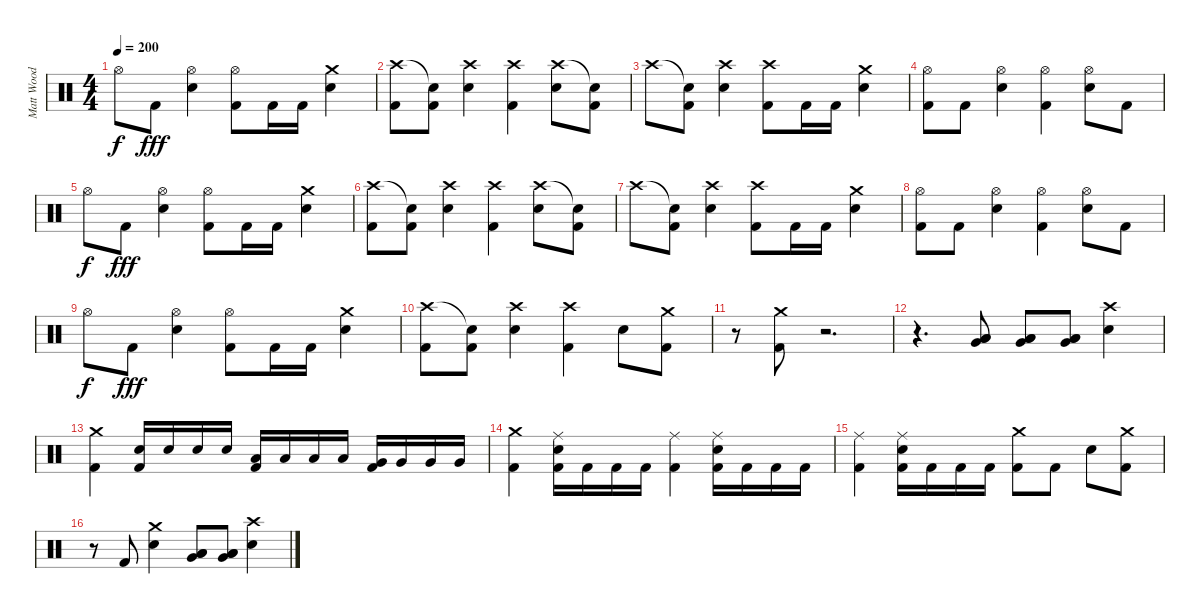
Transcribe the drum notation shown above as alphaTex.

\track ("Matt Wood" "Matt Wood") {instrument percussion}
\staff {score}
\articulation defaults
\ts (4 4)
\tempo 200
\clef neutral
\ks c "Hi-Hat (open)".8{dy f} "Kick (hit) 2".8{dy fff}
("Hi-Hat (open)" "Electric Snare (hit)").4 ("Hi-Hat (open)" "Kick (hit) 2").8 "Kick (hit) 2".16 "Kick (hit) 2".16 ("Crash medium (hit)" "Electric Snare (hit)").4 |
("Crash high (hit)" "Kick (hit) 2").8 ("Snare (hit)"{t} "Kick (hit) 2").8 ("Crash high (hit)" "Electric Snare (hit)").4 ("Crash high (hit)" "Kick (hit) 2").4 ("Crash high (hit)" "Electric Snare (hit)").8 ("Snare (hit)"{t} "Kick (hit) 2").8 |
"Crash high (hit)".8 ("Snare (hit)"{t} "Kick (hit) 2").8 ("Crash high (hit)" "Electric Snare (hit)").4 ("Crash high (hit)" "Kick (hit) 2").8 "Kick (hit) 2".16 "Kick (hit) 2".16 ("Crash medium (hit)" "Electric Snare (hit)").4 |
("Hi-Hat (open)" "Kick (hit) 2").8 "Kick (hit) 2".8 ("Hi-Hat (open)" "Electric Snare (hit)").4 ("Hi-Hat (open)" "Kick (hit) 2").4 ("Hi-Hat (open)" "Electric Snare (hit)").8 "Kick (hit) 2".8 |
"Hi-Hat (open)".8{dy f} "Kick (hit) 2".8{dy fff} ("Hi-Hat (open)" "Electric Snare (hit)").4 ("Hi-Hat (open)" "Kick (hit) 2").8 "Kick (hit) 2".16 "Kick (hit) 2".16 ("Crash medium (hit)" "Electric Snare (hit)").4 |
("Crash high (hit)" "Kick (hit) 2").8 ("Snare (hit)"{t} "Kick (hit) 2").8 ("Crash high (hit)" "Electric Snare (hit)").4 ("Crash high (hit)" "Kick (hit) 2").4 ("Crash high (hit)" "Electric Snare (hit)").8 ("Snare (hit)"{t} "Kick (hit) 2").8 |
"Crash high (hit)".8 ("Snare (hit)"{t} "Kick (hit) 2").8 ("Crash high (hit)" "Electric Snare (hit)").4 ("Crash high (hit)" "Kick (hit) 2").8 "Kick (hit) 2".16 "Kick (hit) 2".16 ("Crash medium (hit)" "Electric Snare (hit)").4 |
("Hi-Hat (open)" "Kick (hit) 2").8 "Kick (hit) 2".8 ("Hi-Hat (open)" "Electric Snare (hit)").4 ("Hi-Hat (open)" "Kick (hit) 2").4 ("Hi-Hat (open)" "Electric Snare (hit)").8 "Kick (hit) 2".8 |
"Hi-Hat (open)".8{dy f} "Kick (hit) 2".8{dy fff} ("Hi-Hat (open)" "Electric Snare (hit)").4 ("Hi-Hat (open)" "Kick (hit) 2").8 "Kick (hit) 2".16 "Kick (hit) 2".16 ("Crash medium (hit)" "Electric Snare (hit)").4 |
("Crash high (hit)" "Kick (hit) 2").8 ("Snare (hit)"{t} "Kick (hit) 2").8 ("Crash high (hit)" "Electric Snare (hit)").4 ("Crash high (hit)" "Kick (hit) 2").4 "Electric Snare (hit)".8 ("Crash medium (hit)" "Kick (hit) 2").8 |
r.8 ("Crash medium (hit)" "Kick (hit) 2").8 r.2{d} |
r.4{d} ("Low Tom (hit)" "Very Low Tom (hit)" "Low Floor Tom (hit)").8 ("Low Tom (hit)" "Very Low Tom (hit)" "Low Floor Tom (hit)").8 ("Low Tom (hit)" "Very Low Tom (hit)" "Low Floor Tom (hit)").8 ("Crash high (hit)" "Electric Snare (hit)").4 |
("Crash medium (hit)" "Kick (hit) 2").4 ("Electric Snare (hit)" "Kick (hit) 2").16 "Electric Snare (hit)".16 "Electric Snare (hit)".16 "Electric Snare (hit)".16 ("Low Tom (hit)" "Kick (hit) 2").16 "Low Tom (hit)".16 "Low Tom (hit)".16 "Low Tom (hit)".16 ("Very Low Tom (hit)" "Kick (hit) 2").16 "Very Low Tom (hit)".16 "Very Low Tom (hit)".16 "Very Low Tom (hit)".16 |
("Crash medium (hit)" "Kick (hit) 2").4 ("Ride (middle)" "Electric Snare (hit)" "Kick (hit) 2").16 "Kick (hit) 2".16 "Kick (hit) 2".16 "Kick (hit) 2".16 ("Ride (middle)" "Kick (hit) 2").4 ("Ride (middle)" "Electric Snare (hit)" "Kick (hit) 2").16 "Kick (hit) 2".16 "Kick (hit) 2".16 "Kick (hit) 2".16 |
("Ride (middle)" "Kick (hit) 2").4 ("Ride (middle)" "Electric Snare (hit)" "Kick (hit) 2").16 "Kick (hit) 2".16 "Kick (hit) 2".16 "Kick (hit) 2".16 ("Crash medium (hit)" "Kick (hit) 2").8 "Kick (hit) 2".8 "Electric Snare (hit)".8 ("Crash medium (hit)" "Kick (hit) 2").8 |
r.8 "Kick (hit) 2".8 ("Crash medium (hit)" "Electric Snare (hit)").4 ("Low Tom (hit)" "Very Low Tom (hit)" "Low Floor Tom (hit)").8 ("Low Tom (hit)" "Very Low Tom (hit)" "Low Floor Tom (hit)").8 ("Crash high (hit)" "Electric Snare (hit)").4
